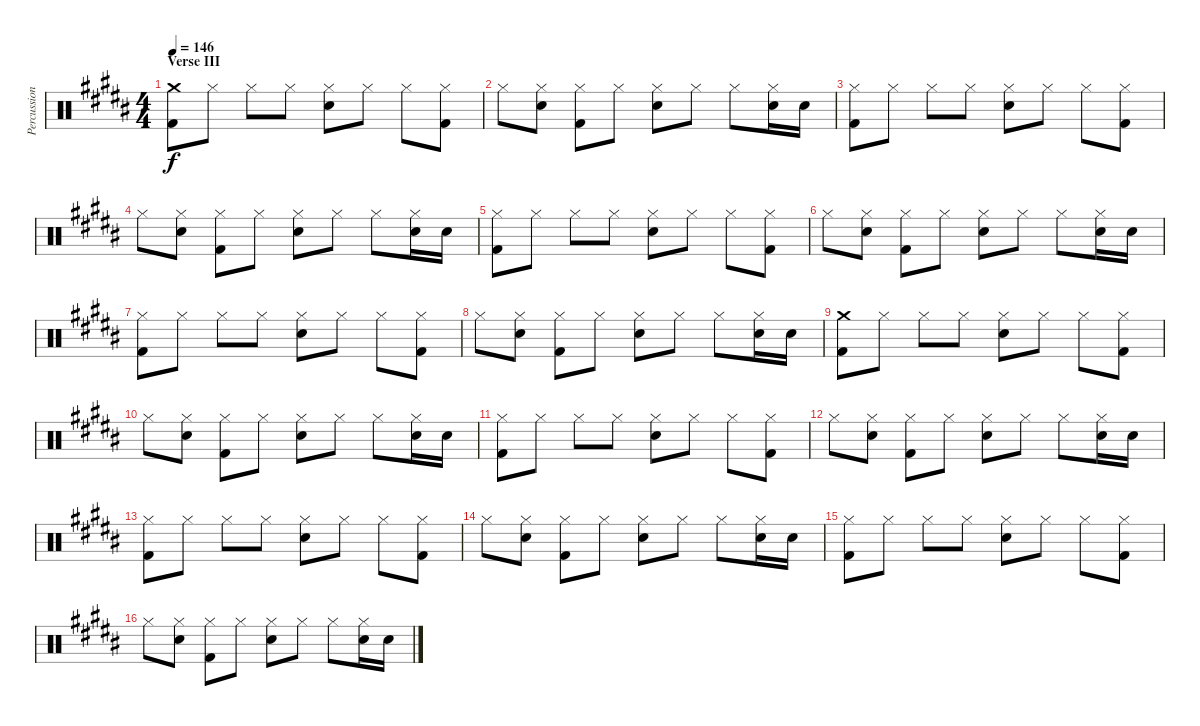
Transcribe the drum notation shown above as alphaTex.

\track ("Percussion" "Percussion") {instrument percussion}
\staff {score}
\articulation defaults
\ts (4 4)
\section ("" "Verse III")
\tempo 146
\clef neutral
\ks b
("Crash medium (hit)" "Kick (hit) 2").8{dy f} "Hi-Hat (closed)".8 "Hi-Hat (closed)".8 "Hi-Hat (closed)".8 ("Hi-Hat (closed)" "Snare (hit) 2").8 "Hi-Hat (closed)".8 "Hi-Hat (closed)".8 ("Hi-Hat (closed)" "Kick (hit) 2").8 |
"Hi-Hat (closed)".8 ("Hi-Hat (closed)" "Snare (hit) 2").8 ("Hi-Hat (closed)" "Kick (hit) 2").8 "Hi-Hat (closed)".8 ("Hi-Hat (closed)" "Snare (hit) 2").8 "Hi-Hat (closed)".8 "Hi-Hat (closed)".8 ("Hi-Hat (closed)" "Snare (hit) 2").16 "Snare (hit) 2".16 |
("Hi-Hat (closed)" "Kick (hit) 2").8 "Hi-Hat (closed)".8 "Hi-Hat (closed)".8 "Hi-Hat (closed)".8 ("Hi-Hat (closed)" "Snare (hit) 2").8 "Hi-Hat (closed)".8 "Hi-Hat (closed)".8 ("Hi-Hat (closed)" "Kick (hit) 2").8 |
"Hi-Hat (closed)".8 ("Hi-Hat (closed)" "Snare (hit) 2").8 ("Hi-Hat (closed)" "Kick (hit) 2").8 "Hi-Hat (closed)".8 ("Hi-Hat (closed)" "Snare (hit) 2").8 "Hi-Hat (closed)".8 "Hi-Hat (closed)".8 ("Hi-Hat (closed)" "Snare (hit) 2").16 "Snare (hit) 2".16 |
("Hi-Hat (closed)" "Kick (hit) 2").8 "Hi-Hat (closed)".8 "Hi-Hat (closed)".8 "Hi-Hat (closed)".8 ("Hi-Hat (closed)" "Snare (hit) 2").8 "Hi-Hat (closed)".8 "Hi-Hat (closed)".8 ("Hi-Hat (closed)" "Kick (hit) 2").8 |
"Hi-Hat (closed)".8 ("Hi-Hat (closed)" "Snare (hit) 2").8 ("Hi-Hat (closed)" "Kick (hit) 2").8 "Hi-Hat (closed)".8 ("Hi-Hat (closed)" "Snare (hit) 2").8 "Hi-Hat (closed)".8 "Hi-Hat (closed)".8 ("Hi-Hat (closed)" "Snare (hit) 2").16 "Snare (hit) 2".16 |
("Hi-Hat (closed)" "Kick (hit) 2").8 "Hi-Hat (closed)".8 "Hi-Hat (closed)".8 "Hi-Hat (closed)".8 ("Hi-Hat (closed)" "Snare (hit) 2").8 "Hi-Hat (closed)".8 "Hi-Hat (closed)".8 ("Hi-Hat (closed)" "Kick (hit) 2").8 |
"Hi-Hat (closed)".8 ("Hi-Hat (closed)" "Snare (hit) 2").8 ("Hi-Hat (closed)" "Kick (hit) 2").8 "Hi-Hat (closed)".8 ("Hi-Hat (closed)" "Snare (hit) 2").8 "Hi-Hat (closed)".8 "Hi-Hat (closed)".8 ("Hi-Hat (closed)" "Snare (hit) 2").16 "Snare (hit) 2".16 |
("Crash medium (hit)" "Kick (hit) 2").8 "Hi-Hat (closed)".8 "Hi-Hat (closed)".8 "Hi-Hat (closed)".8 ("Hi-Hat (closed)" "Snare (hit) 2").8 "Hi-Hat (closed)".8 "Hi-Hat (closed)".8 ("Hi-Hat (closed)" "Kick (hit) 2").8 |
"Hi-Hat (closed)".8 ("Hi-Hat (closed)" "Snare (hit) 2").8 ("Hi-Hat (closed)" "Kick (hit) 2").8 "Hi-Hat (closed)".8 ("Hi-Hat (closed)" "Snare (hit) 2").8 "Hi-Hat (closed)".8 "Hi-Hat (closed)".8 ("Hi-Hat (closed)" "Snare (hit) 2").16 "Snare (hit) 2".16 |
("Hi-Hat (closed)" "Kick (hit) 2").8 "Hi-Hat (closed)".8 "Hi-Hat (closed)".8 "Hi-Hat (closed)".8 ("Hi-Hat (closed)" "Snare (hit) 2").8 "Hi-Hat (closed)".8 "Hi-Hat (closed)".8 ("Hi-Hat (closed)" "Kick (hit) 2").8 |
"Hi-Hat (closed)".8 ("Hi-Hat (closed)" "Snare (hit) 2").8 ("Hi-Hat (closed)" "Kick (hit) 2").8 "Hi-Hat (closed)".8 ("Hi-Hat (closed)" "Snare (hit) 2").8 "Hi-Hat (closed)".8 "Hi-Hat (closed)".8 ("Hi-Hat (closed)" "Snare (hit) 2").16 "Snare (hit) 2".16 |
("Hi-Hat (closed)" "Kick (hit) 2").8 "Hi-Hat (closed)".8 "Hi-Hat (closed)".8 "Hi-Hat (closed)".8 ("Hi-Hat (closed)" "Snare (hit) 2").8 "Hi-Hat (closed)".8 "Hi-Hat (closed)".8 ("Hi-Hat (closed)" "Kick (hit) 2").8 |
"Hi-Hat (closed)".8 ("Hi-Hat (closed)" "Snare (hit) 2").8 ("Hi-Hat (closed)" "Kick (hit) 2").8 "Hi-Hat (closed)".8 ("Hi-Hat (closed)" "Snare (hit) 2").8 "Hi-Hat (closed)".8 "Hi-Hat (closed)".8 ("Hi-Hat (closed)" "Snare (hit) 2").16 "Snare (hit) 2".16 |
("Hi-Hat (closed)" "Kick (hit) 2").8 "Hi-Hat (closed)".8 "Hi-Hat (closed)".8 "Hi-Hat (closed)".8 ("Hi-Hat (closed)" "Snare (hit) 2").8 "Hi-Hat (closed)".8 "Hi-Hat (closed)".8 ("Hi-Hat (closed)" "Kick (hit) 2").8 |
"Hi-Hat (closed)".8 ("Hi-Hat (closed)" "Snare (hit) 2").8 ("Hi-Hat (closed)" "Kick (hit) 2").8 "Hi-Hat (closed)".8 ("Hi-Hat (closed)" "Snare (hit) 2").8 "Hi-Hat (closed)".8 "Hi-Hat (closed)".8 ("Hi-Hat (closed)" "Snare (hit) 2").16 "Snare (hit) 2".16
